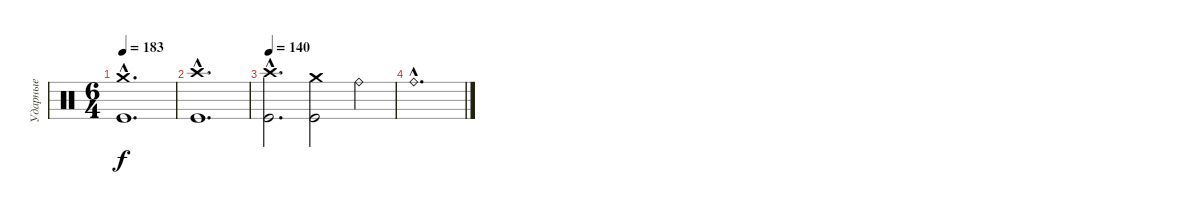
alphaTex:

\track ("Ударные" "Ударные") {instrument percussion}
\staff {score}
\articulation defaults
\ts (6 4)
\tempo 183
\clef neutral
\ks c
("Crash medium (hit)"{hac} "Kick (hit)"{hac}).1{d dy f} |
("Crash high (hit)"{hac} "Kick (hit)"{hac}).1{d} |
\tempo 140
("Crash high (hit)"{hac} "Kick (hit)"{hac}).2{d} ("Crash medium (hit)" "Kick (hit)").2 "Ride (bell)".4 |
"Ride (bell)"{hac}.1{d}
